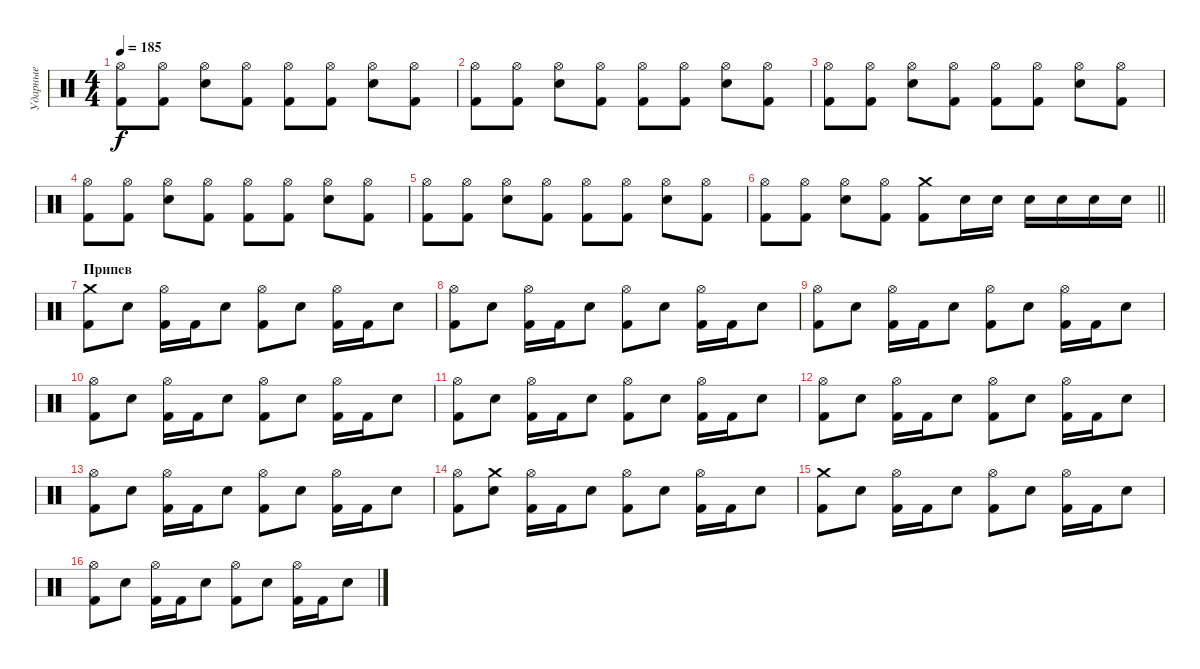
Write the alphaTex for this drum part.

\track ("Ударные" "Ударные") {instrument percussion}
\staff {score}
\articulation defaults
\ts (4 4)
\tempo 185
\clef neutral
\ks c
("Hi-Hat (open)" "Kick (hit) 2").8{dy f} ("Hi-Hat (open)" "Kick (hit) 2").8 ("Hi-Hat (open)" "Electric Snare (hit)").8 ("Hi-Hat (open)" "Kick (hit) 2").8 ("Hi-Hat (open)" "Kick (hit) 2").8 ("Hi-Hat (open)" "Kick (hit) 2").8 ("Hi-Hat (open)" "Electric Snare (hit)").8 ("Hi-Hat (open)" "Kick (hit) 2").8 |
("Hi-Hat (open)" "Kick (hit) 2").8 ("Hi-Hat (open)" "Kick (hit) 2").8 ("Hi-Hat (open)" "Electric Snare (hit)").8 ("Hi-Hat (open)" "Kick (hit) 2").8 ("Hi-Hat (open)" "Kick (hit) 2").8 ("Hi-Hat (open)" "Kick (hit) 2").8 ("Hi-Hat (open)" "Electric Snare (hit)").8 ("Hi-Hat (open)" "Kick (hit) 2").8 |
("Hi-Hat (open)" "Kick (hit) 2").8 ("Hi-Hat (open)" "Kick (hit) 2").8 ("Hi-Hat (open)" "Electric Snare (hit)").8 ("Hi-Hat (open)" "Kick (hit) 2").8 ("Hi-Hat (open)" "Kick (hit) 2").8 ("Hi-Hat (open)" "Kick (hit) 2").8 ("Hi-Hat (open)" "Electric Snare (hit)").8 ("Hi-Hat (open)" "Kick (hit) 2").8 |
("Hi-Hat (open)" "Kick (hit) 2").8 ("Hi-Hat (open)" "Kick (hit) 2").8 ("Hi-Hat (open)" "Electric Snare (hit)").8 ("Hi-Hat (open)" "Kick (hit) 2").8 ("Hi-Hat (open)" "Kick (hit) 2").8 ("Hi-Hat (open)" "Kick (hit) 2").8 ("Hi-Hat (open)" "Electric Snare (hit)").8 ("Hi-Hat (open)" "Kick (hit) 2").8 |
("Hi-Hat (open)" "Kick (hit) 2").8 ("Hi-Hat (open)" "Kick (hit) 2").8 ("Hi-Hat (open)" "Electric Snare (hit)").8 ("Hi-Hat (open)" "Kick (hit) 2").8 ("Hi-Hat (open)" "Kick (hit) 2").8 ("Hi-Hat (open)" "Kick (hit) 2").8 ("Hi-Hat (open)" "Electric Snare (hit)").8 ("Hi-Hat (open)" "Kick (hit) 2").8 |
\barLineRight lightlight
("Hi-Hat (open)" "Kick (hit) 2").8 ("Hi-Hat (open)" "Kick (hit) 2").8 ("Hi-Hat (open)" "Electric Snare (hit)").8 ("Hi-Hat (open)" "Kick (hit) 2").8 ("Crash medium (hit)" "Kick (hit) 2").8 "Electric Snare (hit)".16 "Electric Snare (hit)".16 "Electric Snare (hit)".16 "Electric Snare (hit)".16 "Electric Snare (hit)".16 "Electric Snare (hit)".16 |
\section ("" "Припев")
("Crash medium (hit)" "Kick (hit) 2").8 "Electric Snare (hit)".8 ("Hi-Hat (open)" "Kick (hit) 2").16 "Kick (hit) 2".16 "Electric Snare (hit)".8 ("Hi-Hat (open)" "Kick (hit) 2").8 "Electric Snare (hit)".8 ("Hi-Hat (open)" "Kick (hit) 2").16 "Kick (hit) 2".16 "Electric Snare (hit)".8 |
("Hi-Hat (open)" "Kick (hit) 2").8 "Electric Snare (hit)".8 ("Hi-Hat (open)" "Kick (hit) 2").16 "Kick (hit) 2".16 "Electric Snare (hit)".8 ("Hi-Hat (open)" "Kick (hit) 2").8 "Electric Snare (hit)".8 ("Hi-Hat (open)" "Kick (hit) 2").16 "Kick (hit) 2".16 "Electric Snare (hit)".8 |
("Hi-Hat (open)" "Kick (hit) 2").8 "Electric Snare (hit)".8 ("Hi-Hat (open)" "Kick (hit) 2").16 "Kick (hit) 2".16 "Electric Snare (hit)".8 ("Hi-Hat (open)" "Kick (hit) 2").8 "Electric Snare (hit)".8 ("Hi-Hat (open)" "Kick (hit) 2").16 "Kick (hit) 2".16 "Electric Snare (hit)".8 |
("Hi-Hat (open)" "Kick (hit) 2").8 "Electric Snare (hit)".8 ("Hi-Hat (open)" "Kick (hit) 2").16 "Kick (hit) 2".16 "Electric Snare (hit)".8 ("Hi-Hat (open)" "Kick (hit) 2").8 "Electric Snare (hit)".8 ("Hi-Hat (open)" "Kick (hit) 2").16 "Kick (hit) 2".16 "Electric Snare (hit)".8 |
("Hi-Hat (open)" "Kick (hit) 2").8 "Electric Snare (hit)".8 ("Hi-Hat (open)" "Kick (hit) 2").16 "Kick (hit) 2".16 "Electric Snare (hit)".8 ("Hi-Hat (open)" "Kick (hit) 2").8 "Electric Snare (hit)".8 ("Hi-Hat (open)" "Kick (hit) 2").16 "Kick (hit) 2".16 "Electric Snare (hit)".8 |
("Hi-Hat (open)" "Kick (hit) 2").8 "Electric Snare (hit)".8 ("Hi-Hat (open)" "Kick (hit) 2").16 "Kick (hit) 2".16 "Electric Snare (hit)".8 ("Hi-Hat (open)" "Kick (hit) 2").8 "Electric Snare (hit)".8 ("Hi-Hat (open)" "Kick (hit) 2").16 "Kick (hit) 2".16 "Electric Snare (hit)".8 |
("Hi-Hat (open)" "Kick (hit) 2").8 "Electric Snare (hit)".8 ("Hi-Hat (open)" "Kick (hit) 2").16 "Kick (hit) 2".16 "Electric Snare (hit)".8 ("Hi-Hat (open)" "Kick (hit) 2").8 "Electric Snare (hit)".8 ("Hi-Hat (open)" "Kick (hit) 2").16 "Kick (hit) 2".16 "Electric Snare (hit)".8 |
("Hi-Hat (open)" "Kick (hit) 2").8 ("Crash medium (hit)" "Electric Snare (hit)").8 ("Hi-Hat (open)" "Kick (hit) 2").16 "Kick (hit) 2".16 "Electric Snare (hit)".8 ("Hi-Hat (open)" "Kick (hit) 2").8 "Electric Snare (hit)".8 ("Hi-Hat (open)" "Kick (hit) 2").16 "Kick (hit) 2".16 "Electric Snare (hit)".8 |
("Crash medium (hit)" "Kick (hit) 2").8 "Electric Snare (hit)".8 ("Hi-Hat (open)" "Kick (hit) 2").16 "Kick (hit) 2".16 "Electric Snare (hit)".8 ("Hi-Hat (open)" "Kick (hit) 2").8 "Electric Snare (hit)".8 ("Hi-Hat (open)" "Kick (hit) 2").16 "Kick (hit) 2".16 "Electric Snare (hit)".8 |
("Hi-Hat (open)" "Kick (hit) 2").8 "Electric Snare (hit)".8 ("Hi-Hat (open)" "Kick (hit) 2").16 "Kick (hit) 2".16 "Electric Snare (hit)".8 ("Hi-Hat (open)" "Kick (hit) 2").8 "Electric Snare (hit)".8 ("Hi-Hat (open)" "Kick (hit) 2").16 "Kick (hit) 2".16 "Electric Snare (hit)".8
